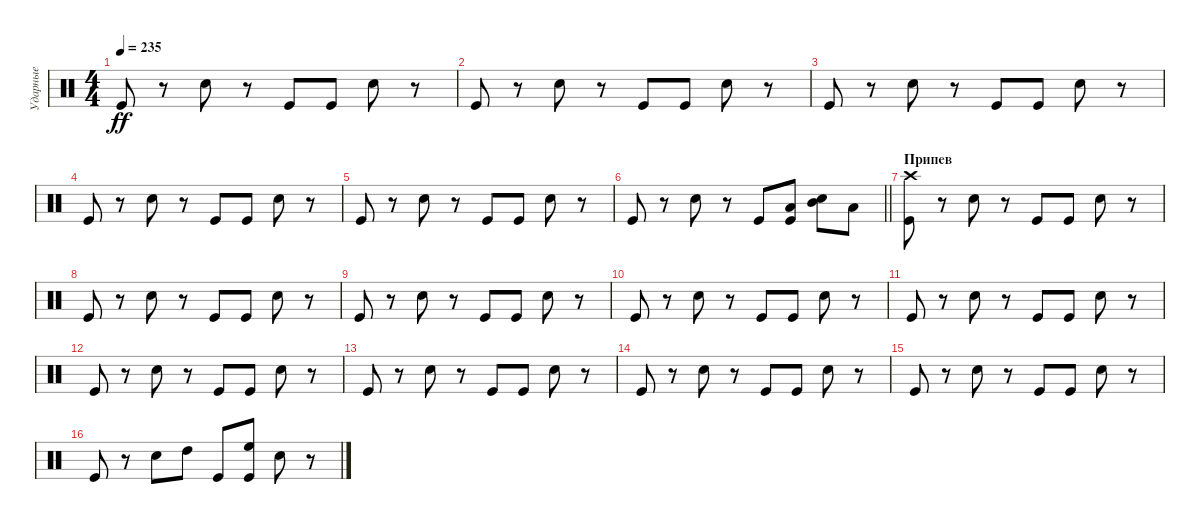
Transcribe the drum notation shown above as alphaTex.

\track ("Ударные" "Ударные") {instrument percussion}
\staff {score}
\articulation defaults
\ts (4 4)
\tempo 235
\clef neutral
\ks c "Kick (hit)".8{dy ff}
r.8 "Snare (hit) 2".8 r.8 "Kick (hit)".8 "Kick (hit)".8 "Snare (hit) 2".8 r.8 |
"Kick (hit)".8 r.8 "Snare (hit) 2".8 r.8 "Kick (hit)".8 "Kick (hit)".8 "Snare (hit) 2".8 r.8 |
"Kick (hit)".8 r.8 "Snare (hit) 2".8 r.8 "Kick (hit)".8 "Kick (hit)".8 "Snare (hit) 2".8 r.8 |
"Kick (hit)".8 r.8 "Snare (hit) 2".8 r.8 "Kick (hit)".8 "Kick (hit)".8 "Snare (hit) 2".8 r.8 |
"Kick (hit)".8 r.8 "Snare (hit) 2".8 r.8 "Kick (hit)".8 "Kick (hit)".8 "Snare (hit) 2".8 r.8 |
\barLineRight lightlight "Kick (hit)".8
r.8 "Snare (hit) 2".8 r.8 "Kick (hit)".8 ("Kick (hit)" "Low Tom (hit)").8 ("Snare (hit) 2" "Mid Tom (hit)").8 "Low Tom (hit)".8 |
\section ("" "Припев")
("Kick (hit)" "Crash high (hit)").8 r.8 "Snare (hit) 2".8 r.8 "Kick (hit)".8 "Kick (hit)".8 "Snare (hit) 2".8 r.8 |
"Kick (hit)".8 r.8 "Snare (hit) 2".8 r.8 "Kick (hit)".8 "Kick (hit)".8 "Snare (hit) 2".8 r.8 |
"Kick (hit)".8 r.8 "Snare (hit) 2".8 r.8 "Kick (hit)".8 "Kick (hit)".8 "Snare (hit) 2".8 r.8 |
"Kick (hit)".8 r.8 "Snare (hit) 2".8 r.8 "Kick (hit)".8 "Kick (hit)".8 "Snare (hit) 2".8 r.8 |
"Kick (hit)".8 r.8 "Snare (hit) 2".8 r.8 "Kick (hit)".8 "Kick (hit)".8 "Snare (hit) 2".8 r.8 |
"Kick (hit)".8 r.8 "Snare (hit) 2".8 r.8 "Kick (hit)".8 "Kick (hit)".8 "Snare (hit) 2".8 r.8 |
"Kick (hit)".8 r.8 "Snare (hit) 2".8 r.8 "Kick (hit)".8 "Kick (hit)".8 "Snare (hit) 2".8 r.8 |
"Kick (hit)".8 r.8 "Snare (hit) 2".8 r.8 "Kick (hit)".8 "Kick (hit)".8 "Snare (hit) 2".8 r.8 |
"Kick (hit)".8 r.8 "Snare (hit) 2".8 r.8 "Kick (hit)".8 "Kick (hit)".8 "Snare (hit) 2".8 r.8 |
"Kick (hit)".8 r.8 "Snare (hit) 2".8 "High Tom (hit)".8 "Kick (hit)".8 ("Kick (hit)" "High Floor Tom (hit)").8 "Snare (hit) 2".8 r.8
